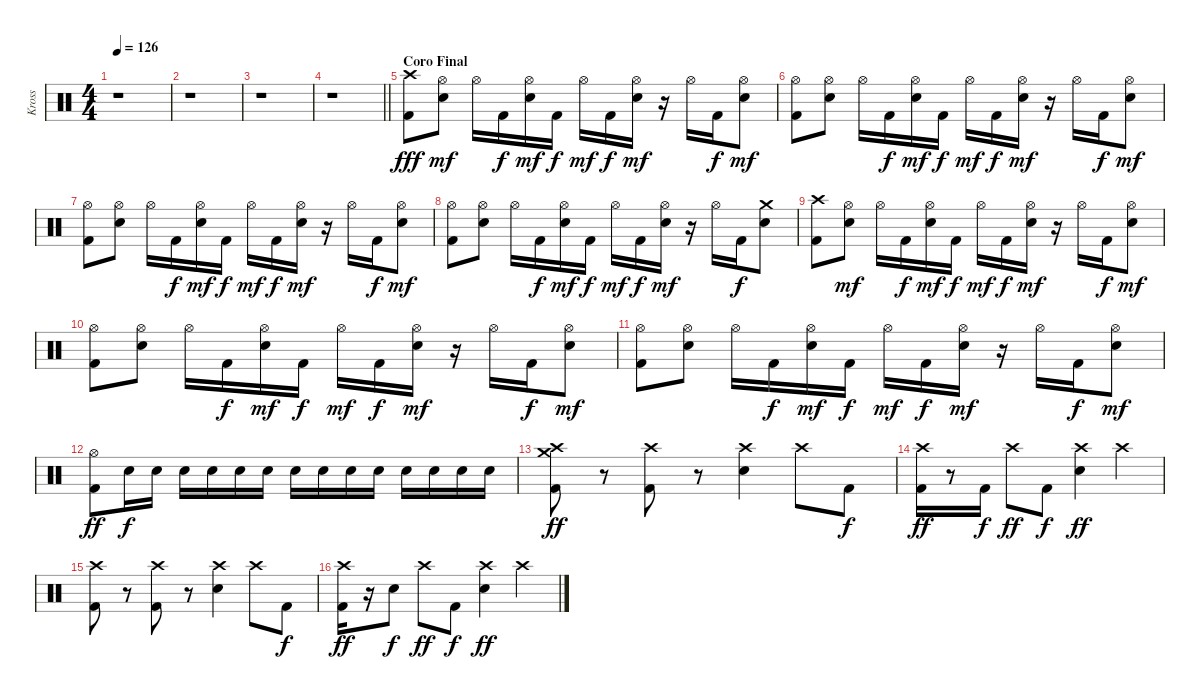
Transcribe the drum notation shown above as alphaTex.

\track ("Kross" "Kross") {instrument percussion}
\staff {score}
\articulation defaults
\ts (4 4)
\tempo 126
\clef neutral
\ks c
r.1{dy fff} |
r.1 |
r.1 |
\barLineRight lightlight
r.1 |
\section ("" "Coro Final")
("Crash high (hit)" "Kick (hit) 2").8 ("Hi-Hat (open)" "Electric Snare (hit)").8{dy mf} "Hi-Hat (open)".16 "Kick (hit) 2".16{dy f} ("Hi-Hat (open)" "Electric Snare (hit)").16{dy mf} "Kick (hit) 2".16{dy f} "Hi-Hat (open)".16{dy mf} "Kick (hit) 2".16{dy f} ("Hi-Hat (open)" "Electric Snare (hit)").16{dy mf} r.16 "Hi-Hat (open)".16 "Kick (hit) 2".16{dy f} ("Hi-Hat (open)" "Electric Snare (hit)").8{dy mf} |
("Hi-Hat (open)" "Kick (hit) 2").8 ("Hi-Hat (open)" "Electric Snare (hit)").8 "Hi-Hat (open)".16 "Kick (hit) 2".16{dy f} ("Hi-Hat (open)" "Electric Snare (hit)").16{dy mf} "Kick (hit) 2".16{dy f} "Hi-Hat (open)".16{dy mf} "Kick (hit) 2".16{dy f} ("Hi-Hat (open)" "Electric Snare (hit)").16{dy mf} r.16 "Hi-Hat (open)".16 "Kick (hit) 2".16{dy f} ("Hi-Hat (open)" "Electric Snare (hit)").8{dy mf} |
("Hi-Hat (open)" "Kick (hit) 2").8 ("Hi-Hat (open)" "Electric Snare (hit)").8 "Hi-Hat (open)".16 "Kick (hit) 2".16{dy f} ("Hi-Hat (open)" "Electric Snare (hit)").16{dy mf} "Kick (hit) 2".16{dy f} "Hi-Hat (open)".16{dy mf} "Kick (hit) 2".16{dy f} ("Hi-Hat (open)" "Electric Snare (hit)").16{dy mf} r.16 "Hi-Hat (open)".16 "Kick (hit) 2".16{dy f} ("Hi-Hat (open)" "Electric Snare (hit)").8{dy mf} |
("Hi-Hat (open)" "Kick (hit) 2").8 ("Hi-Hat (open)" "Electric Snare (hit)").8 "Hi-Hat (open)".16 "Kick (hit) 2".16{dy f} ("Hi-Hat (open)" "Electric Snare (hit)").16{dy mf} "Kick (hit) 2".16{dy f} "Hi-Hat (open)".16{dy mf} "Kick (hit) 2".16{dy f} ("Hi-Hat (open)" "Electric Snare (hit)").16{dy mf} r.16 "Hi-Hat (open)".16 "Kick (hit) 2".16{dy f} ("Crash medium (hit)" "Electric Snare (hit)").8 |
("Crash high (hit)" "Kick (hit) 2").8 ("Hi-Hat (open)" "Electric Snare (hit)").8{dy mf} "Hi-Hat (open)".16 "Kick (hit) 2".16{dy f} ("Hi-Hat (open)" "Electric Snare (hit)").16{dy mf} "Kick (hit) 2".16{dy f} "Hi-Hat (open)".16{dy mf} "Kick (hit) 2".16{dy f} ("Hi-Hat (open)" "Electric Snare (hit)").16{dy mf} r.16 "Hi-Hat (open)".16 "Kick (hit) 2".16{dy f} ("Hi-Hat (open)" "Electric Snare (hit)").8{dy mf} |
("Hi-Hat (open)" "Kick (hit) 2").8 ("Hi-Hat (open)" "Electric Snare (hit)").8 "Hi-Hat (open)".16 "Kick (hit) 2".16{dy f} ("Hi-Hat (open)" "Electric Snare (hit)").16{dy mf} "Kick (hit) 2".16{dy f} "Hi-Hat (open)".16{dy mf} "Kick (hit) 2".16{dy f} ("Hi-Hat (open)" "Electric Snare (hit)").16{dy mf} r.16 "Hi-Hat (open)".16 "Kick (hit) 2".16{dy f} ("Hi-Hat (open)" "Electric Snare (hit)").8{dy mf} |
("Hi-Hat (open)" "Kick (hit) 2").8 ("Hi-Hat (open)" "Electric Snare (hit)").8 "Hi-Hat (open)".16 "Kick (hit) 2".16{dy f} ("Hi-Hat (open)" "Electric Snare (hit)").16{dy mf} "Kick (hit) 2".16{dy f} "Hi-Hat (open)".16{dy mf} "Kick (hit) 2".16{dy f} ("Hi-Hat (open)" "Electric Snare (hit)").16{dy mf} r.16 "Hi-Hat (open)".16 "Kick (hit) 2".16{dy f} ("Hi-Hat (open)" "Electric Snare (hit)").8{dy mf} |
("Hi-Hat (open)" "Kick (hit) 2").8{dy ff} "Electric Snare (hit)".16{dy f} "Electric Snare (hit)".16 "Electric Snare (hit)".16 "Electric Snare (hit)".16 "Electric Snare (hit)".16 "Electric Snare (hit)".16 "Electric Snare (hit)".16 "Electric Snare (hit)".16 "Electric Snare (hit)".16 "Electric Snare (hit)".16 "Electric Snare (hit)".16 "Electric Snare (hit)".16 "Electric Snare (hit)".16 "Electric Snare (hit)".16 |
("Crash high (hit)" "Crash medium (hit)" "Kick (hit) 2").8{dy ff} r.8 ("Crash high (hit)" "Kick (hit) 2").8 r.8 ("Crash high (hit)" "Electric Snare (hit)").4 "Crash high (hit)".8 "Kick (hit) 2".8{dy f} |
("Crash high (hit)" "Kick (hit) 2").16{dy ff} r.8 "Kick (hit) 2".16{dy f} "Crash high (hit)".8{dy ff} "Kick (hit) 2".8{dy f} ("Crash high (hit)" "Electric Snare (hit)").4{dy ff} "Crash high (hit)".4 |
("Crash high (hit)" "Kick (hit) 2").8 r.8 ("Crash high (hit)" "Kick (hit) 2").8 r.8 ("Crash high (hit)" "Electric Snare (hit)").4 "Crash high (hit)".8 "Kick (hit) 2".8{dy f} |
("Crash high (hit)" "Kick (hit) 2").16{dy ff} r.16 "Electric Snare (hit)".8{dy f} "Crash high (hit)".8{dy ff} "Kick (hit) 2".8{dy f} ("Crash high (hit)" "Electric Snare (hit)").4{dy ff} "Crash high (hit)".4
